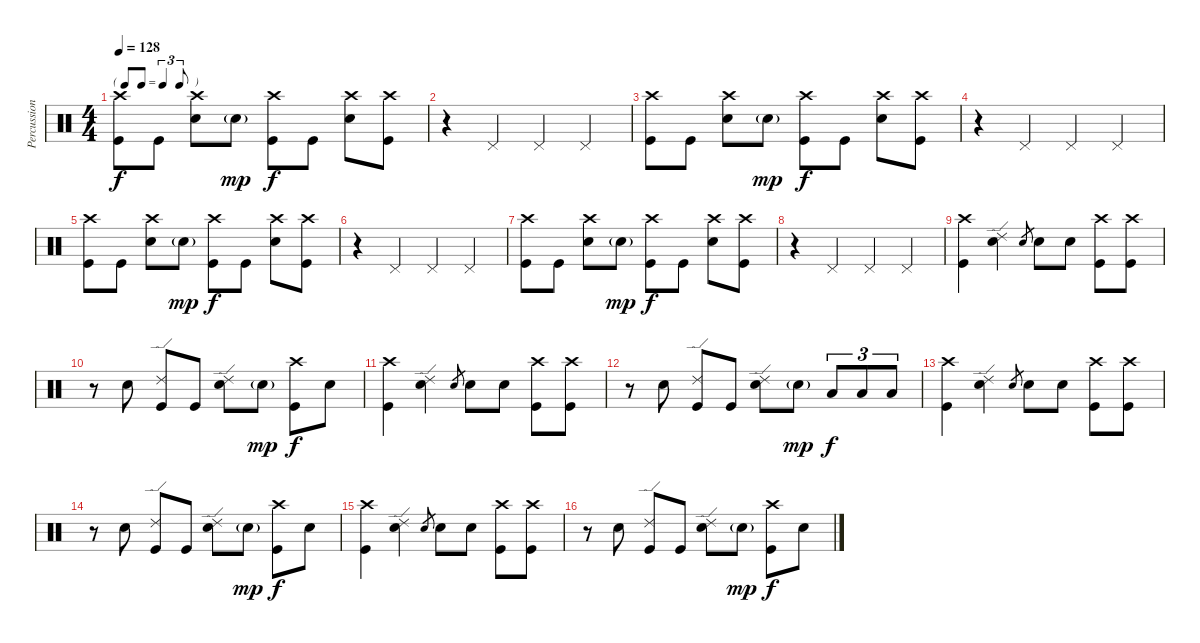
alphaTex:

\track ("Percussion" "Percussion") {instrument percussion}
\staff {score}
\articulation defaults
\ts (4 4)
\tf triplet8th
\tempo 128
\clef neutral
\ks c
("Crash high (hit)" "Kick (hit)").8{dy f} "Kick (hit)".8 ("Crash high (hit)" "Electric Snare (hit)").8 "Electric Snare (hit)"{g}.8{dy mp} ("Crash high (hit)" "Kick (hit)").8{dy f} "Kick (hit)".8 ("Crash high (hit)" "Electric Snare (hit)").8 ("Crash high (hit)" "Kick (hit)").8 |
r.4 "Pedal Hi-Hat (hit)".4 "Pedal Hi-Hat (hit)".4 "Pedal Hi-Hat (hit)".4 |
("Crash high (hit)" "Kick (hit)").8 "Kick (hit)".8 ("Crash high (hit)" "Electric Snare (hit)").8 "Electric Snare (hit)"{g}.8{dy mp} ("Crash high (hit)" "Kick (hit)").8{dy f} "Kick (hit)".8 ("Crash high (hit)" "Electric Snare (hit)").8 ("Crash high (hit)" "Kick (hit)").8 |
r.4 "Pedal Hi-Hat (hit)".4 "Pedal Hi-Hat (hit)".4 "Pedal Hi-Hat (hit)".4 |
("Crash high (hit)" "Kick (hit)").8 "Kick (hit)".8 ("Crash high (hit)" "Electric Snare (hit)").8 "Electric Snare (hit)"{g}.8{dy mp} ("Crash high (hit)" "Kick (hit)").8{dy f} "Kick (hit)".8 ("Crash high (hit)" "Electric Snare (hit)").8 ("Crash high (hit)" "Kick (hit)").8 |
r.4 "Pedal Hi-Hat (hit)".4 "Pedal Hi-Hat (hit)".4 "Pedal Hi-Hat (hit)".4 |
("Crash high (hit)" "Kick (hit)").8 "Kick (hit)".8 ("Crash high (hit)" "Electric Snare (hit)").8 "Electric Snare (hit)"{g}.8{dy mp} ("Crash high (hit)" "Kick (hit)").8{dy f} "Kick (hit)".8 ("Crash high (hit)" "Electric Snare (hit)").8 ("Crash high (hit)" "Kick (hit)").8 |
r.4 "Pedal Hi-Hat (hit)".4 "Pedal Hi-Hat (hit)".4 "Pedal Hi-Hat (hit)".4 |
("Crash high (hit)" "Kick (hit)").4 ("Ride (edge) 2" "Electric Snare (hit)").4 "Electric Snare (hit)".8{gr} "Electric Snare (hit)".8 "Electric Snare (hit)".8 ("Crash high (hit)" "Kick (hit)").8 ("Crash high (hit)" "Kick (hit)").8 |
r.8 "Electric Snare (hit)".8 ("Ride (edge) 2" "Kick (hit)").8 "Kick (hit)".8 ("Ride (edge) 2" "Electric Snare (hit)").8 "Electric Snare (hit)"{g}.8{dy mp} ("Crash high (hit)" "Kick (hit)").8{dy f} "Electric Snare (hit)".8 |
("Crash high (hit)" "Kick (hit)").4 ("Ride (edge) 2" "Electric Snare (hit)").4 "Electric Snare (hit)".8{gr} "Electric Snare (hit)".8 "Electric Snare (hit)".8 ("Crash high (hit)" "Kick (hit)").8 ("Crash high (hit)" "Kick (hit)").8 |
r.8 "Electric Snare (hit)".8 ("Ride (edge) 2" "Kick (hit)").8 "Kick (hit)".8 ("Ride (edge) 2" "Electric Snare (hit)").8 "Electric Snare (hit)"{g}.8{dy mp} "Low Tom (hit)".8{tu (3 2) dy f} "Low Tom (hit)".8{tu (3 2)} "Low Tom (hit)".8{tu (3 2)} |
("Crash high (hit)" "Kick (hit)").4 ("Ride (edge) 2" "Electric Snare (hit)").4 "Electric Snare (hit)".8{gr} "Electric Snare (hit)".8 "Electric Snare (hit)".8 ("Crash high (hit)" "Kick (hit)").8 ("Crash high (hit)" "Kick (hit)").8 |
r.8 "Electric Snare (hit)".8 ("Ride (edge) 2" "Kick (hit)").8 "Kick (hit)".8 ("Ride (edge) 2" "Electric Snare (hit)").8 "Electric Snare (hit)"{g}.8{dy mp} ("Crash high (hit)" "Kick (hit)").8{dy f} "Electric Snare (hit)".8 |
("Crash high (hit)" "Kick (hit)").4 ("Ride (edge) 2" "Electric Snare (hit)").4 "Electric Snare (hit)".8{gr} "Electric Snare (hit)".8 "Electric Snare (hit)".8 ("Crash high (hit)" "Kick (hit)").8 ("Crash high (hit)" "Kick (hit)").8 |
r.8 "Electric Snare (hit)".8 ("Ride (edge) 2" "Kick (hit)").8 "Kick (hit)".8 ("Ride (edge) 2" "Electric Snare (hit)").8 "Electric Snare (hit)"{g}.8{dy mp} ("Crash high (hit)" "Kick (hit)").8{dy f} "Electric Snare (hit)".8
